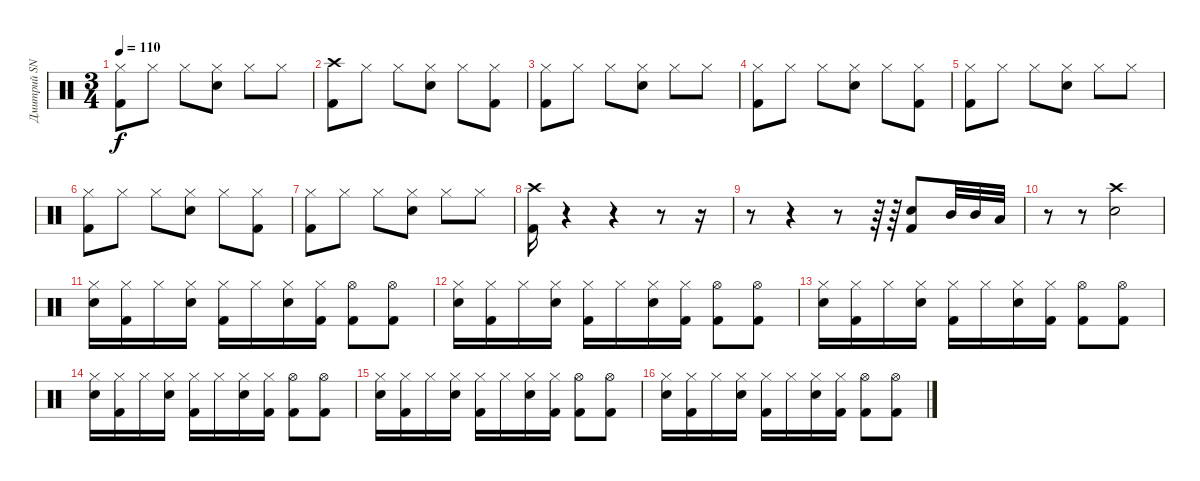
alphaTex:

\track ("Дмитрий SNAKE" "Дмитрий SN") {instrument percussion}
\staff {score}
\articulation defaults
\ts (3 4)
\tempo 110
\clef neutral
\ks c
("Hi-Hat (closed)" "Kick (hit) 2").8{dy f} "Hi-Hat (closed)".8 "Hi-Hat (closed)".8 ("Hi-Hat (closed)" "Snare (hit) 2").8 "Hi-Hat (closed)".8 "Hi-Hat (closed)".8 |
("Crash high (hit)" "Kick (hit) 2").8 "Hi-Hat (closed)".8 "Hi-Hat (closed)".8 ("Hi-Hat (closed)" "Snare (hit) 2").8 "Hi-Hat (closed)".8 ("Hi-Hat (closed)" "Kick (hit) 2").8 |
("Hi-Hat (closed)" "Kick (hit) 2").8 "Hi-Hat (closed)".8 "Hi-Hat (closed)".8 ("Hi-Hat (closed)" "Snare (hit) 2").8 "Hi-Hat (closed)".8 "Hi-Hat (closed)".8 |
("Hi-Hat (closed)" "Kick (hit) 2").8 "Hi-Hat (closed)".8 "Hi-Hat (closed)".8 ("Hi-Hat (closed)" "Snare (hit) 2").8 "Hi-Hat (closed)".8 ("Hi-Hat (closed)" "Kick (hit) 2").8 |
("Hi-Hat (closed)" "Kick (hit) 2").8 "Hi-Hat (closed)".8 "Hi-Hat (closed)".8 ("Hi-Hat (closed)" "Snare (hit) 2").8 "Hi-Hat (closed)".8 "Hi-Hat (closed)".8 |
("Hi-Hat (closed)" "Kick (hit) 2").8 "Hi-Hat (closed)".8 "Hi-Hat (closed)".8 ("Hi-Hat (closed)" "Snare (hit) 2").8 "Hi-Hat (closed)".8 ("Hi-Hat (closed)" "Kick (hit) 2").8 |
("Hi-Hat (closed)" "Kick (hit) 2").8 "Hi-Hat (closed)".8 "Hi-Hat (closed)".8 ("Hi-Hat (closed)" "Snare (hit) 2").8 "Hi-Hat (closed)".8 "Hi-Hat (closed)".8 |
("Crash high (hit)" "Kick (hit) 2").16 r.4 r.4 r.8 r.16 |
r.8 r.4 r.8 r.64 r.64 ("Snare (hit) 2" "Kick (hit) 2").8 "Mid Tom (hit)".32 "Mid Tom (hit)".32 "Low Tom (hit)".32 |
r.8 r.8 ("Crash high (hit)" "Snare (hit) 2").2 |
("Hi-Hat (closed)" "Snare (hit) 2").16 ("Hi-Hat (closed)" "Kick (hit) 2").16 "Hi-Hat (closed)".16 ("Hi-Hat (closed)" "Snare (hit) 2").16 ("Hi-Hat (closed)" "Kick (hit) 2").16 "Hi-Hat (closed)".16 ("Hi-Hat (closed)" "Snare (hit) 2").16 ("Hi-Hat (closed)" "Kick (hit) 2").16 ("Hi-Hat (open)" "Kick (hit) 2").8 ("Hi-Hat (open)" "Kick (hit) 2").8 |
("Hi-Hat (closed)" "Snare (hit) 2").16 ("Hi-Hat (closed)" "Kick (hit) 2").16 "Hi-Hat (closed)".16 ("Hi-Hat (closed)" "Snare (hit) 2").16 ("Hi-Hat (closed)" "Kick (hit) 2").16 "Hi-Hat (closed)".16 ("Hi-Hat (closed)" "Snare (hit) 2").16 ("Hi-Hat (closed)" "Kick (hit) 2").16 ("Hi-Hat (open)" "Kick (hit) 2").8 ("Hi-Hat (open)" "Kick (hit) 2").8 |
("Hi-Hat (closed)" "Snare (hit) 2").16 ("Hi-Hat (closed)" "Kick (hit) 2").16 "Hi-Hat (closed)".16 ("Hi-Hat (closed)" "Snare (hit) 2").16 ("Hi-Hat (closed)" "Kick (hit) 2").16 "Hi-Hat (closed)".16 ("Hi-Hat (closed)" "Snare (hit) 2").16 ("Hi-Hat (closed)" "Kick (hit) 2").16 ("Hi-Hat (open)" "Kick (hit) 2").8 ("Hi-Hat (open)" "Kick (hit) 2").8 |
("Hi-Hat (closed)" "Snare (hit) 2").16 ("Hi-Hat (closed)" "Kick (hit) 2").16 "Hi-Hat (closed)".16 ("Hi-Hat (closed)" "Snare (hit) 2").16 ("Hi-Hat (closed)" "Kick (hit) 2").16 "Hi-Hat (closed)".16 ("Hi-Hat (closed)" "Snare (hit) 2").16 ("Hi-Hat (closed)" "Kick (hit) 2").16 ("Hi-Hat (open)" "Kick (hit) 2").8 ("Hi-Hat (open)" "Kick (hit) 2").8 |
("Hi-Hat (closed)" "Snare (hit) 2").16 ("Hi-Hat (closed)" "Kick (hit) 2").16 "Hi-Hat (closed)".16 ("Hi-Hat (closed)" "Snare (hit) 2").16 ("Hi-Hat (closed)" "Kick (hit) 2").16 "Hi-Hat (closed)".16 ("Hi-Hat (closed)" "Snare (hit) 2").16 ("Hi-Hat (closed)" "Kick (hit) 2").16 ("Hi-Hat (open)" "Kick (hit) 2").8 ("Hi-Hat (open)" "Kick (hit) 2").8 |
("Hi-Hat (closed)" "Snare (hit) 2").16 ("Hi-Hat (closed)" "Kick (hit) 2").16 "Hi-Hat (closed)".16 ("Hi-Hat (closed)" "Snare (hit) 2").16 ("Hi-Hat (closed)" "Kick (hit) 2").16 "Hi-Hat (closed)".16 ("Hi-Hat (closed)" "Snare (hit) 2").16 ("Hi-Hat (closed)" "Kick (hit) 2").16 ("Hi-Hat (open)" "Kick (hit) 2").8 ("Hi-Hat (open)" "Kick (hit) 2").8
